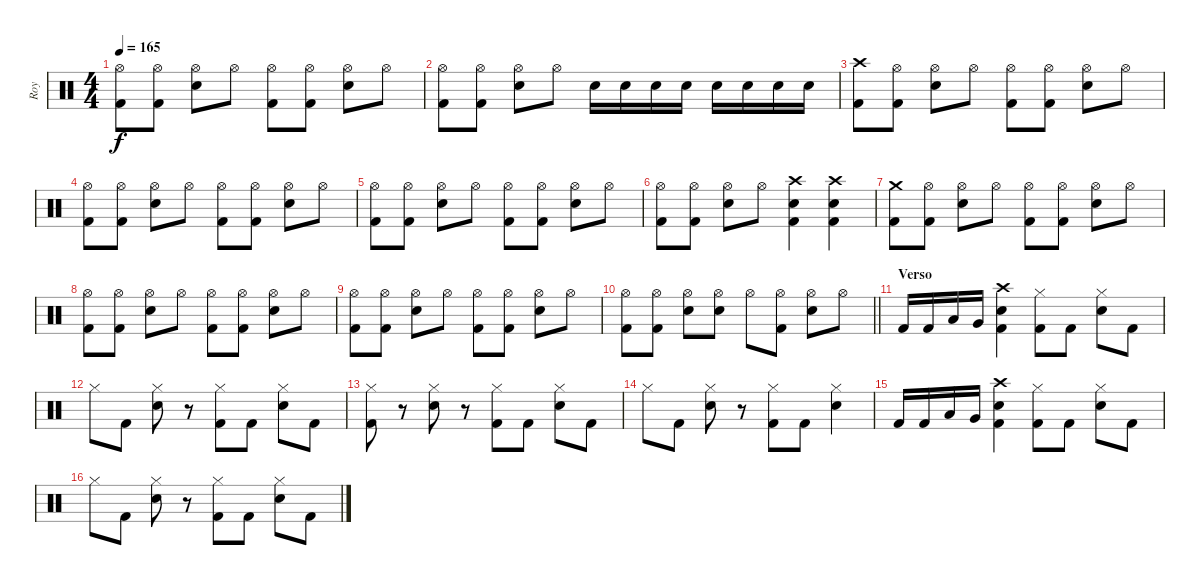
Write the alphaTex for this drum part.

\track ("Roy" "Roy") {instrument percussion}
\staff {score}
\articulation defaults
\ts (4 4)
\tempo 165
\clef neutral
\ks c
("Hi-Hat (open)" "Kick (hit) 2").8{dy f} ("Hi-Hat (open)" "Kick (hit) 2").8 ("Hi-Hat (open)" "Electric Snare (hit)").8 "Hi-Hat (open)".8 ("Hi-Hat (open)" "Kick (hit) 2").8 ("Hi-Hat (open)" "Kick (hit) 2").8 ("Hi-Hat (open)" "Electric Snare (hit)").8 "Hi-Hat (open)".8 |
("Hi-Hat (open)" "Kick (hit) 2").8 ("Hi-Hat (open)" "Kick (hit) 2").8 ("Hi-Hat (open)" "Electric Snare (hit)").8 "Hi-Hat (open)".8 "Electric Snare (hit)".16 "Electric Snare (hit)".16 "Electric Snare (hit)".16 "Electric Snare (hit)".16 "Electric Snare (hit)".16 "Electric Snare (hit)".16 "Electric Snare (hit)".16 "Electric Snare (hit)".16 |
("Crash high (hit)" "Kick (hit) 2").8 ("Hi-Hat (open)" "Kick (hit) 2").8 ("Hi-Hat (open)" "Electric Snare (hit)").8 "Hi-Hat (open)".8 ("Hi-Hat (open)" "Kick (hit) 2").8 ("Hi-Hat (open)" "Kick (hit) 2").8 ("Hi-Hat (open)" "Electric Snare (hit)").8 "Hi-Hat (open)".8 |
("Hi-Hat (open)" "Kick (hit) 2").8 ("Hi-Hat (open)" "Kick (hit) 2").8 ("Hi-Hat (open)" "Electric Snare (hit)").8 "Hi-Hat (open)".8 ("Hi-Hat (open)" "Kick (hit) 2").8 ("Hi-Hat (open)" "Kick (hit) 2").8 ("Hi-Hat (open)" "Electric Snare (hit)").8 "Hi-Hat (open)".8 |
("Hi-Hat (open)" "Kick (hit) 2").8 ("Hi-Hat (open)" "Kick (hit) 2").8 ("Hi-Hat (open)" "Electric Snare (hit)").8 "Hi-Hat (open)".8 ("Hi-Hat (open)" "Kick (hit) 2").8 ("Hi-Hat (open)" "Kick (hit) 2").8 ("Hi-Hat (open)" "Electric Snare (hit)").8 "Hi-Hat (open)".8 |
("Hi-Hat (open)" "Kick (hit) 2").8 ("Hi-Hat (open)" "Kick (hit) 2").8 ("Hi-Hat (open)" "Electric Snare (hit)").8 "Hi-Hat (open)".8 ("Crash high (hit)" "Electric Snare (hit)" "Kick (hit) 2").4 ("Crash high (hit)" "Electric Snare (hit)" "Kick (hit) 2").4 |
("Crash medium (hit)" "Kick (hit) 2").8 ("Hi-Hat (open)" "Kick (hit) 2").8 ("Hi-Hat (open)" "Electric Snare (hit)").8 "Hi-Hat (open)".8 ("Hi-Hat (open)" "Kick (hit) 2").8 ("Hi-Hat (open)" "Kick (hit) 2").8 ("Hi-Hat (open)" "Electric Snare (hit)").8 "Hi-Hat (open)".8 |
("Hi-Hat (open)" "Kick (hit) 2").8 ("Hi-Hat (open)" "Kick (hit) 2").8 ("Hi-Hat (open)" "Electric Snare (hit)").8 "Hi-Hat (open)".8 ("Hi-Hat (open)" "Kick (hit) 2").8 ("Hi-Hat (open)" "Kick (hit) 2").8 ("Hi-Hat (open)" "Electric Snare (hit)").8 "Hi-Hat (open)".8 |
("Hi-Hat (open)" "Kick (hit) 2").8 ("Hi-Hat (open)" "Kick (hit) 2").8 ("Hi-Hat (open)" "Electric Snare (hit)").8 "Hi-Hat (open)".8 ("Hi-Hat (open)" "Kick (hit) 2").8 ("Hi-Hat (open)" "Kick (hit) 2").8 ("Hi-Hat (open)" "Electric Snare (hit)").8 "Hi-Hat (open)".8 |
\barLineRight lightlight
("Hi-Hat (open)" "Kick (hit) 2").8 ("Hi-Hat (open)" "Kick (hit) 2").8 ("Hi-Hat (open)" "Electric Snare (hit)").8 ("Hi-Hat (open)" "Electric Snare (hit)").8 "Hi-Hat (open)".8 ("Hi-Hat (open)" "Kick (hit) 2").8 ("Hi-Hat (open)" "Electric Snare (hit)").8 "Hi-Hat (open)".8 |
\section ("" "Verso")
"Kick (hit) 2".16 "Kick (hit) 2".16 "Low Tom (hit)".16 "Very Low Tom (hit)".16 ("Crash high (hit)" "Electric Snare (hit)" "Kick (hit) 2").4 ("Hi-Hat (closed)" "Kick (hit) 2").8 "Kick (hit) 2".8 ("Hi-Hat (closed)" "Electric Snare (hit)").8 "Kick (hit) 2".8 |
"Hi-Hat (closed)".8 "Kick (hit) 2".8 ("Hi-Hat (closed)" "Electric Snare (hit)").8 r.8 ("Hi-Hat (closed)" "Kick (hit) 2").8 "Kick (hit) 2".8 ("Hi-Hat (closed)" "Electric Snare (hit)").8 "Kick (hit) 2".8 |
("Hi-Hat (closed)" "Kick (hit) 2").8 r.8 ("Hi-Hat (closed)" "Electric Snare (hit)").8 r.8 ("Hi-Hat (closed)" "Kick (hit) 2").8 "Kick (hit) 2".8 ("Hi-Hat (closed)" "Electric Snare (hit)").8 "Kick (hit) 2".8 |
"Hi-Hat (closed)".8 "Kick (hit) 2".8 ("Hi-Hat (closed)" "Electric Snare (hit)").8 r.8 ("Hi-Hat (closed)" "Kick (hit) 2").8 "Kick (hit) 2".8 ("Hi-Hat (closed)" "Electric Snare (hit)").4 |
"Kick (hit) 2".16 "Kick (hit) 2".16 "Low Tom (hit)".16 "Very Low Tom (hit)".16 ("Crash high (hit)" "Electric Snare (hit)" "Kick (hit) 2").4 ("Hi-Hat (closed)" "Kick (hit) 2").8 "Kick (hit) 2".8 ("Hi-Hat (closed)" "Electric Snare (hit)").8 "Kick (hit) 2".8 |
"Hi-Hat (closed)".8 "Kick (hit) 2".8 ("Hi-Hat (closed)" "Electric Snare (hit)").8 r.8 ("Hi-Hat (closed)" "Kick (hit) 2").8 "Kick (hit) 2".8 ("Hi-Hat (closed)" "Electric Snare (hit)").8 "Kick (hit) 2".8
